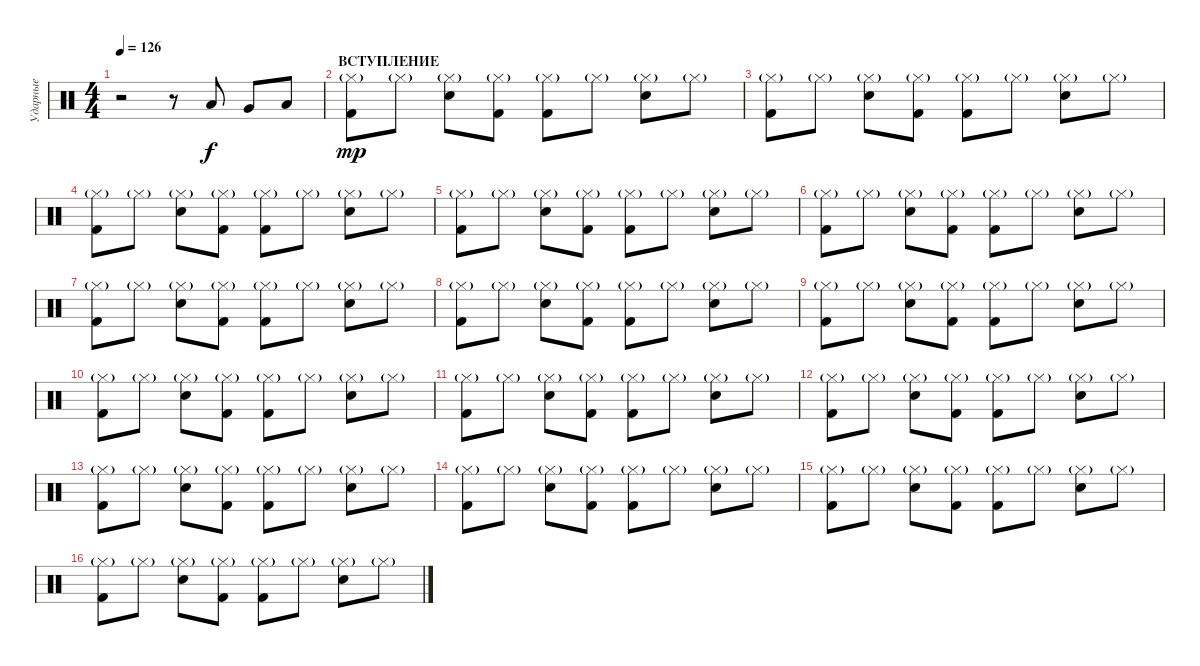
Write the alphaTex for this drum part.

\track ("Ударные" "Ударные") {instrument percussion}
\staff {score}
\articulation defaults
\ts (4 4)
\tempo 126
\clef neutral
\ks c
r.2{dy f} r.8 "Low Tom (hit)".8 "Very Low Tom (hit)".8 "Low Floor Tom (hit)".8 |
\section ("" "ВСТУПЛЕНИЕ")
("Hi-Hat (closed)"{g} "Kick (hit) 2").8{dy mp} "Hi-Hat (closed)"{g}.8 ("Hi-Hat (closed)"{g} "Snare (hit) 2").8 ("Hi-Hat (closed)"{g} "Kick (hit) 2").8 ("Hi-Hat (closed)"{g} "Kick (hit) 2").8 "Hi-Hat (closed)"{g}.8 ("Hi-Hat (closed)"{g} "Snare (hit) 2").8 "Hi-Hat (closed)"{g}.8 |
("Hi-Hat (closed)"{g} "Kick (hit) 2").8 "Hi-Hat (closed)"{g}.8 ("Hi-Hat (closed)"{g} "Snare (hit) 2").8 ("Hi-Hat (closed)"{g} "Kick (hit) 2").8 ("Hi-Hat (closed)"{g} "Kick (hit) 2").8 "Hi-Hat (closed)"{g}.8 ("Hi-Hat (closed)"{g} "Snare (hit) 2").8 "Hi-Hat (closed)"{g}.8 |
("Hi-Hat (closed)"{g} "Kick (hit) 2").8 "Hi-Hat (closed)"{g}.8 ("Hi-Hat (closed)"{g} "Snare (hit) 2").8 ("Hi-Hat (closed)"{g} "Kick (hit) 2").8 ("Hi-Hat (closed)"{g} "Kick (hit) 2").8 "Hi-Hat (closed)"{g}.8 ("Hi-Hat (closed)"{g} "Snare (hit) 2").8 "Hi-Hat (closed)"{g}.8 |
("Hi-Hat (closed)"{g} "Kick (hit) 2").8 "Hi-Hat (closed)"{g}.8 ("Hi-Hat (closed)"{g} "Snare (hit) 2").8 ("Hi-Hat (closed)"{g} "Kick (hit) 2").8 ("Hi-Hat (closed)"{g} "Kick (hit) 2").8 "Hi-Hat (closed)"{g}.8 ("Hi-Hat (closed)"{g} "Snare (hit) 2").8 "Hi-Hat (closed)"{g}.8 |
("Hi-Hat (closed)"{g} "Kick (hit) 2").8 "Hi-Hat (closed)"{g}.8 ("Hi-Hat (closed)"{g} "Snare (hit) 2").8 ("Hi-Hat (closed)"{g} "Kick (hit) 2").8 ("Hi-Hat (closed)"{g} "Kick (hit) 2").8 "Hi-Hat (closed)"{g}.8 ("Hi-Hat (closed)"{g} "Snare (hit) 2").8 "Hi-Hat (closed)"{g}.8 |
("Hi-Hat (closed)"{g} "Kick (hit) 2").8 "Hi-Hat (closed)"{g}.8 ("Hi-Hat (closed)"{g} "Snare (hit) 2").8 ("Hi-Hat (closed)"{g} "Kick (hit) 2").8 ("Hi-Hat (closed)"{g} "Kick (hit) 2").8 "Hi-Hat (closed)"{g}.8 ("Hi-Hat (closed)"{g} "Snare (hit) 2").8 "Hi-Hat (closed)"{g}.8 |
("Hi-Hat (closed)"{g} "Kick (hit) 2").8 "Hi-Hat (closed)"{g}.8 ("Hi-Hat (closed)"{g} "Snare (hit) 2").8 ("Hi-Hat (closed)"{g} "Kick (hit) 2").8 ("Hi-Hat (closed)"{g} "Kick (hit) 2").8 "Hi-Hat (closed)"{g}.8 ("Hi-Hat (closed)"{g} "Snare (hit) 2").8 "Hi-Hat (closed)"{g}.8 |
("Hi-Hat (closed)"{g} "Kick (hit) 2").8 "Hi-Hat (closed)"{g}.8 ("Hi-Hat (closed)"{g} "Snare (hit) 2").8 ("Hi-Hat (closed)"{g} "Kick (hit) 2").8 ("Hi-Hat (closed)"{g} "Kick (hit) 2").8 "Hi-Hat (closed)"{g}.8 ("Hi-Hat (closed)"{g} "Snare (hit) 2").8 "Hi-Hat (closed)"{g}.8 |
("Hi-Hat (closed)"{g} "Kick (hit) 2").8 "Hi-Hat (closed)"{g}.8 ("Hi-Hat (closed)"{g} "Snare (hit) 2").8 ("Hi-Hat (closed)"{g} "Kick (hit) 2").8 ("Hi-Hat (closed)"{g} "Kick (hit) 2").8 "Hi-Hat (closed)"{g}.8 ("Hi-Hat (closed)"{g} "Snare (hit) 2").8 "Hi-Hat (closed)"{g}.8 |
("Hi-Hat (closed)"{g} "Kick (hit) 2").8 "Hi-Hat (closed)"{g}.8 ("Hi-Hat (closed)"{g} "Snare (hit) 2").8 ("Hi-Hat (closed)"{g} "Kick (hit) 2").8 ("Hi-Hat (closed)"{g} "Kick (hit) 2").8 "Hi-Hat (closed)"{g}.8 ("Hi-Hat (closed)"{g} "Snare (hit) 2").8 "Hi-Hat (closed)"{g}.8 |
("Hi-Hat (closed)"{g} "Kick (hit) 2").8 "Hi-Hat (closed)"{g}.8 ("Hi-Hat (closed)"{g} "Snare (hit) 2").8 ("Hi-Hat (closed)"{g} "Kick (hit) 2").8 ("Hi-Hat (closed)"{g} "Kick (hit) 2").8 "Hi-Hat (closed)"{g}.8 ("Hi-Hat (closed)"{g} "Snare (hit) 2").8 "Hi-Hat (closed)"{g}.8 |
("Hi-Hat (closed)"{g} "Kick (hit) 2").8 "Hi-Hat (closed)"{g}.8 ("Hi-Hat (closed)"{g} "Snare (hit) 2").8 ("Hi-Hat (closed)"{g} "Kick (hit) 2").8 ("Hi-Hat (closed)"{g} "Kick (hit) 2").8 "Hi-Hat (closed)"{g}.8 ("Hi-Hat (closed)"{g} "Snare (hit) 2").8 "Hi-Hat (closed)"{g}.8 |
("Hi-Hat (closed)"{g} "Kick (hit) 2").8 "Hi-Hat (closed)"{g}.8 ("Hi-Hat (closed)"{g} "Snare (hit) 2").8 ("Hi-Hat (closed)"{g} "Kick (hit) 2").8 ("Hi-Hat (closed)"{g} "Kick (hit) 2").8 "Hi-Hat (closed)"{g}.8 ("Hi-Hat (closed)"{g} "Snare (hit) 2").8 "Hi-Hat (closed)"{g}.8 |
("Hi-Hat (closed)"{g} "Kick (hit) 2").8 "Hi-Hat (closed)"{g}.8 ("Hi-Hat (closed)"{g} "Snare (hit) 2").8 ("Hi-Hat (closed)"{g} "Kick (hit) 2").8 ("Hi-Hat (closed)"{g} "Kick (hit) 2").8 "Hi-Hat (closed)"{g}.8 ("Hi-Hat (closed)"{g} "Snare (hit) 2").8 "Hi-Hat (closed)"{g}.8 |
("Hi-Hat (closed)"{g} "Kick (hit) 2").8 "Hi-Hat (closed)"{g}.8 ("Hi-Hat (closed)"{g} "Snare (hit) 2").8 ("Hi-Hat (closed)"{g} "Kick (hit) 2").8 ("Hi-Hat (closed)"{g} "Kick (hit) 2").8 "Hi-Hat (closed)"{g}.8 ("Hi-Hat (closed)"{g} "Snare (hit) 2").8 "Hi-Hat (closed)"{g}.8
